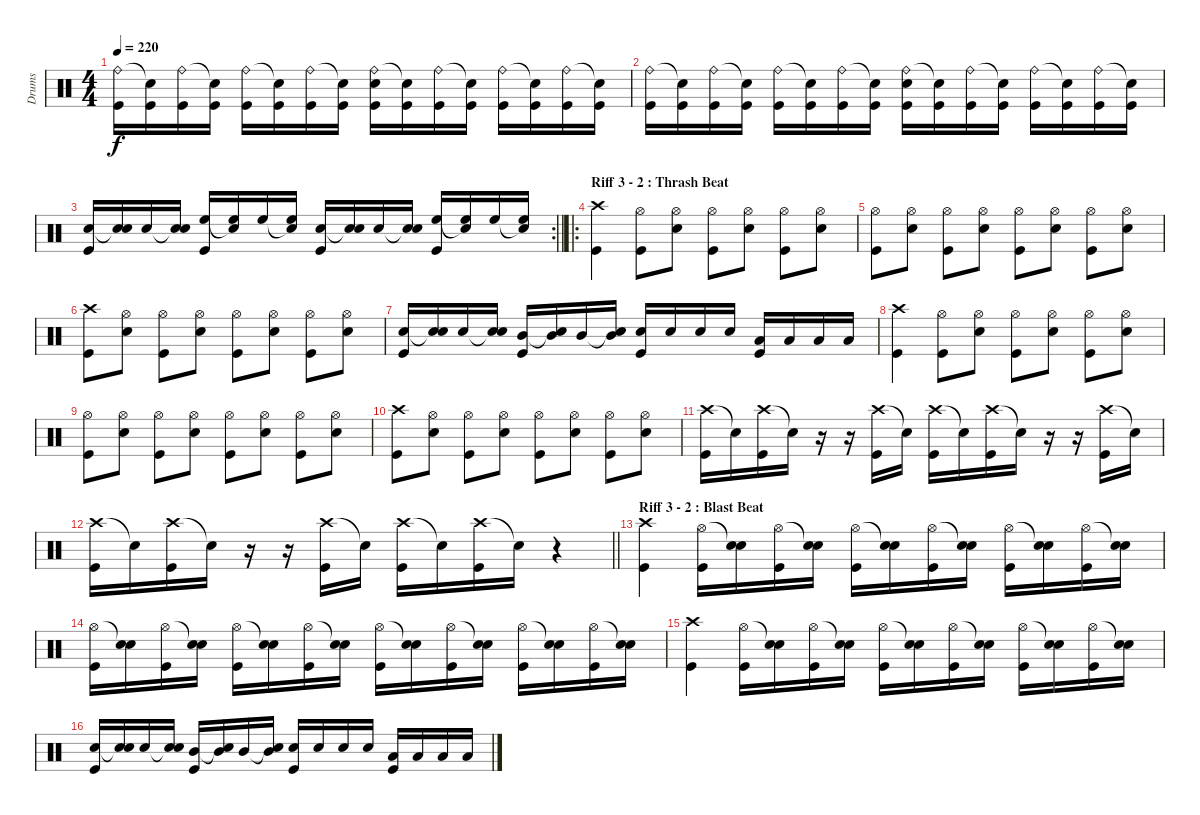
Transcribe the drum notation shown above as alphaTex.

\track ("Drums" "Drums") {instrument percussion}
\staff {score}
\articulation defaults
\ts (4 4)
\tempo 220
\clef neutral
\ks c
("Ride (bell)" "Kick (hit)").16{dy f} ("Snare (hit)"{t} "Kick (hit)").16 ("Ride (bell)" "Kick (hit)").16 ("Snare (hit)"{t} "Kick (hit)").16 ("Ride (bell)" "Kick (hit)").16 ("Snare (hit)"{t} "Kick (hit)").16 ("Ride (bell)" "Kick (hit)").16 ("Snare (hit)"{t} "Kick (hit)").16 ("Ride (bell)" "Electric Snare (hit)" "Kick (hit)").16 ("Snare (hit)"{t} "Kick (hit)").16 ("Ride (bell)" "Kick (hit)").16 ("Snare (hit)"{t} "Kick (hit)").16 ("Ride (bell)" "Kick (hit)").16 ("Snare (hit)"{t} "Kick (hit)").16 ("Ride (bell)" "Kick (hit)").16 ("Snare (hit)"{t} "Kick (hit)").16 |
("Ride (bell)" "Kick (hit)").16 ("Snare (hit)"{t} "Kick (hit)").16 ("Ride (bell)" "Kick (hit)").16 ("Snare (hit)"{t} "Kick (hit)").16 ("Ride (bell)" "Kick (hit)").16 ("Snare (hit)"{t} "Kick (hit)").16 ("Ride (bell)" "Kick (hit)").16 ("Snare (hit)"{t} "Kick (hit)").16 ("Ride (bell)" "Electric Snare (hit)" "Kick (hit)").16 ("Snare (hit)"{t} "Kick (hit)").16 ("Ride (bell)" "Kick (hit)").16 ("Snare (hit)"{t} "Kick (hit)").16 ("Ride (bell)" "Kick (hit)").16 ("Snare (hit)"{t} "Kick (hit)").16 ("Ride (bell)" "Kick (hit)").16 ("Snare (hit)"{t} "Kick (hit)").16 |
\rc 2
\barLineRight lightlight
("Electric Snare (hit)" "Kick (hit)").16 ("Snare (hit)"{t} "Electric Snare (hit)").16 "Electric Snare (hit)".16 ("Snare (hit)"{t} "Electric Snare (hit)").16 ("High Floor Tom (hit)" "Kick (hit)").16 ("Snare (hit)"{t} "High Floor Tom (hit)").16 "High Floor Tom (hit)".16 ("Snare (hit)"{t} "High Floor Tom (hit)").16 ("Electric Snare (hit)" "Kick (hit)").16 ("Snare (hit)"{t} "Electric Snare (hit)").16 "Electric Snare (hit)".16 ("Snare (hit)"{t} "Electric Snare (hit)").16 ("High Floor Tom (hit)" "Kick (hit)").16 ("Snare (hit)"{t} "High Floor Tom (hit)").16 "High Floor Tom (hit)".16 ("Snare (hit)"{t} "High Floor Tom (hit)").16 |
\ro
\section ("" "Riff 3 - 2 : Thrash Beat")
("Crash high (hit)" "Kick (hit)").4 ("Hi-Hat (open)" "Kick (hit)").8 ("Hi-Hat (open)" "Electric Snare (hit)").8 ("Hi-Hat (open)" "Kick (hit)").8 ("Hi-Hat (open)" "Electric Snare (hit)").8 ("Hi-Hat (open)" "Kick (hit)").8 ("Hi-Hat (open)" "Electric Snare (hit)").8 |
("Hi-Hat (open)" "Kick (hit)").8 ("Hi-Hat (open)" "Electric Snare (hit)").8 ("Hi-Hat (open)" "Kick (hit)").8 ("Hi-Hat (open)" "Electric Snare (hit)").8 ("Hi-Hat (open)" "Kick (hit)").8 ("Hi-Hat (open)" "Electric Snare (hit)").8 ("Hi-Hat (open)" "Kick (hit)").8 ("Hi-Hat (open)" "Electric Snare (hit)").8 |
("Crash high (hit)" "Kick (hit)").8 ("Hi-Hat (open)" "Electric Snare (hit)").8 ("Hi-Hat (open)" "Kick (hit)").8 ("Hi-Hat (open)" "Electric Snare (hit)").8 ("Hi-Hat (open)" "Kick (hit)").8 ("Hi-Hat (open)" "Electric Snare (hit)").8 ("Hi-Hat (open)" "Kick (hit)").8 ("Hi-Hat (open)" "Electric Snare (hit)").8 |
("Electric Snare (hit)" "Kick (hit)").16 ("Snare (hit)"{t} "Electric Snare (hit)").16 "Electric Snare (hit)".16 ("Snare (hit)"{t} "Electric Snare (hit)").16 ("Mid Tom (hit)" "Kick (hit)").16 ("Snare (hit)"{t} "Mid Tom (hit)").16 "Mid Tom (hit)".16 ("Snare (hit)"{t} "Mid Tom (hit)").16 ("Electric Snare (hit)" "Kick (hit)").16 "Electric Snare (hit)".16 "Electric Snare (hit)".16 "Electric Snare (hit)".16 ("Low Tom (hit)" "Kick (hit)").16 "Low Tom (hit)".16 "Low Tom (hit)".16 "Low Tom (hit)".16 |
("Crash high (hit)" "Kick (hit)").4 ("Hi-Hat (open)" "Kick (hit)").8 ("Hi-Hat (open)" "Electric Snare (hit)").8 ("Hi-Hat (open)" "Kick (hit)").8 ("Hi-Hat (open)" "Electric Snare (hit)").8 ("Hi-Hat (open)" "Kick (hit)").8 ("Hi-Hat (open)" "Electric Snare (hit)").8 |
("Hi-Hat (open)" "Kick (hit)").8 ("Hi-Hat (open)" "Electric Snare (hit)").8 ("Hi-Hat (open)" "Kick (hit)").8 ("Hi-Hat (open)" "Electric Snare (hit)").8 ("Hi-Hat (open)" "Kick (hit)").8 ("Hi-Hat (open)" "Electric Snare (hit)").8 ("Hi-Hat (open)" "Kick (hit)").8 ("Hi-Hat (open)" "Electric Snare (hit)").8 |
("Crash high (hit)" "Kick (hit)").8 ("Hi-Hat (open)" "Electric Snare (hit)").8 ("Hi-Hat (open)" "Kick (hit)").8 ("Hi-Hat (open)" "Electric Snare (hit)").8 ("Hi-Hat (open)" "Kick (hit)").8 ("Hi-Hat (open)" "Electric Snare (hit)").8 ("Hi-Hat (open)" "Kick (hit)").8 ("Hi-Hat (open)" "Electric Snare (hit)").8 |
("Crash high (hit)" "Kick (hit)").16 "Snare (hit)"{t}.16 ("Crash high (hit)" "Kick (hit)").16 "Snare (hit)"{t}.16 r.16 r.16 ("Crash high (hit)" "Kick (hit)").16 "Snare (hit)"{t}.16 ("Crash high (hit)" "Kick (hit)").16 "Snare (hit)"{t}.16 ("Crash high (hit)" "Kick (hit)").16 "Snare (hit)"{t}.16 r.16 r.16 ("Crash high (hit)" "Kick (hit)").16 "Snare (hit)"{t}.16 |
\barLineRight lightlight
("Crash high (hit)" "Kick (hit)").16 "Snare (hit)"{t}.16 ("Crash high (hit)" "Kick (hit)").16 "Snare (hit)"{t}.16 r.16 r.16 ("Crash high (hit)" "Kick (hit)").16 "Snare (hit)"{t}.16 ("Crash high (hit)" "Kick (hit)").16 "Snare (hit)"{t}.16 ("Crash high (hit)" "Kick (hit)").16 "Snare (hit)"{t}.16 r.4 |
\section ("" "Riff 3 - 2 : Blast Beat")
("Crash high (hit)" "Kick (hit)").4 ("Hi-Hat (open)" "Kick (hit)").16 ("Snare (hit)"{t} "Electric Snare (hit)").16 ("Hi-Hat (open)" "Kick (hit)").16 ("Snare (hit)"{t} "Electric Snare (hit)").16 ("Hi-Hat (open)" "Kick (hit)").16 ("Snare (hit)"{t} "Electric Snare (hit)").16 ("Hi-Hat (open)" "Kick (hit)").16 ("Snare (hit)"{t} "Electric Snare (hit)").16 ("Hi-Hat (open)" "Kick (hit)").16 ("Snare (hit)"{t} "Electric Snare (hit)").16 ("Hi-Hat (open)" "Kick (hit)").16 ("Snare (hit)"{t} "Electric Snare (hit)").16 |
("Hi-Hat (open)" "Kick (hit)").16 ("Snare (hit)"{t} "Electric Snare (hit)").16 ("Hi-Hat (open)" "Kick (hit)").16 ("Snare (hit)"{t} "Electric Snare (hit)").16 ("Hi-Hat (open)" "Kick (hit)").16 ("Snare (hit)"{t} "Electric Snare (hit)").16 ("Hi-Hat (open)" "Kick (hit)").16 ("Snare (hit)"{t} "Electric Snare (hit)").16 ("Hi-Hat (open)" "Kick (hit)").16 ("Snare (hit)"{t} "Electric Snare (hit)").16 ("Hi-Hat (open)" "Kick (hit)").16 ("Snare (hit)"{t} "Electric Snare (hit)").16 ("Hi-Hat (open)" "Kick (hit)").16 ("Snare (hit)"{t} "Electric Snare (hit)").16 ("Hi-Hat (open)" "Kick (hit)").16 ("Snare (hit)"{t} "Electric Snare (hit)").16 |
("Crash high (hit)" "Kick (hit)").4 ("Hi-Hat (open)" "Kick (hit)").16 ("Snare (hit)"{t} "Electric Snare (hit)").16 ("Hi-Hat (open)" "Kick (hit)").16 ("Snare (hit)"{t} "Electric Snare (hit)").16 ("Hi-Hat (open)" "Kick (hit)").16 ("Snare (hit)"{t} "Electric Snare (hit)").16 ("Hi-Hat (open)" "Kick (hit)").16 ("Snare (hit)"{t} "Electric Snare (hit)").16 ("Hi-Hat (open)" "Kick (hit)").16 ("Snare (hit)"{t} "Electric Snare (hit)").16 ("Hi-Hat (open)" "Kick (hit)").16 ("Snare (hit)"{t} "Electric Snare (hit)").16 |
("Electric Snare (hit)" "Kick (hit)").16 ("Snare (hit)"{t} "Electric Snare (hit)").16 "Electric Snare (hit)".16 ("Snare (hit)"{t} "Electric Snare (hit)").16 ("Mid Tom (hit)" "Kick (hit)").16 ("Snare (hit)"{t} "Mid Tom (hit)").16 "Mid Tom (hit)".16 ("Snare (hit)"{t} "Mid Tom (hit)").16 ("Electric Snare (hit)" "Kick (hit)").16 "Electric Snare (hit)".16 "Electric Snare (hit)".16 "Electric Snare (hit)".16 ("Low Tom (hit)" "Kick (hit)").16 "Low Tom (hit)".16 "Low Tom (hit)".16 "Low Tom (hit)".16
